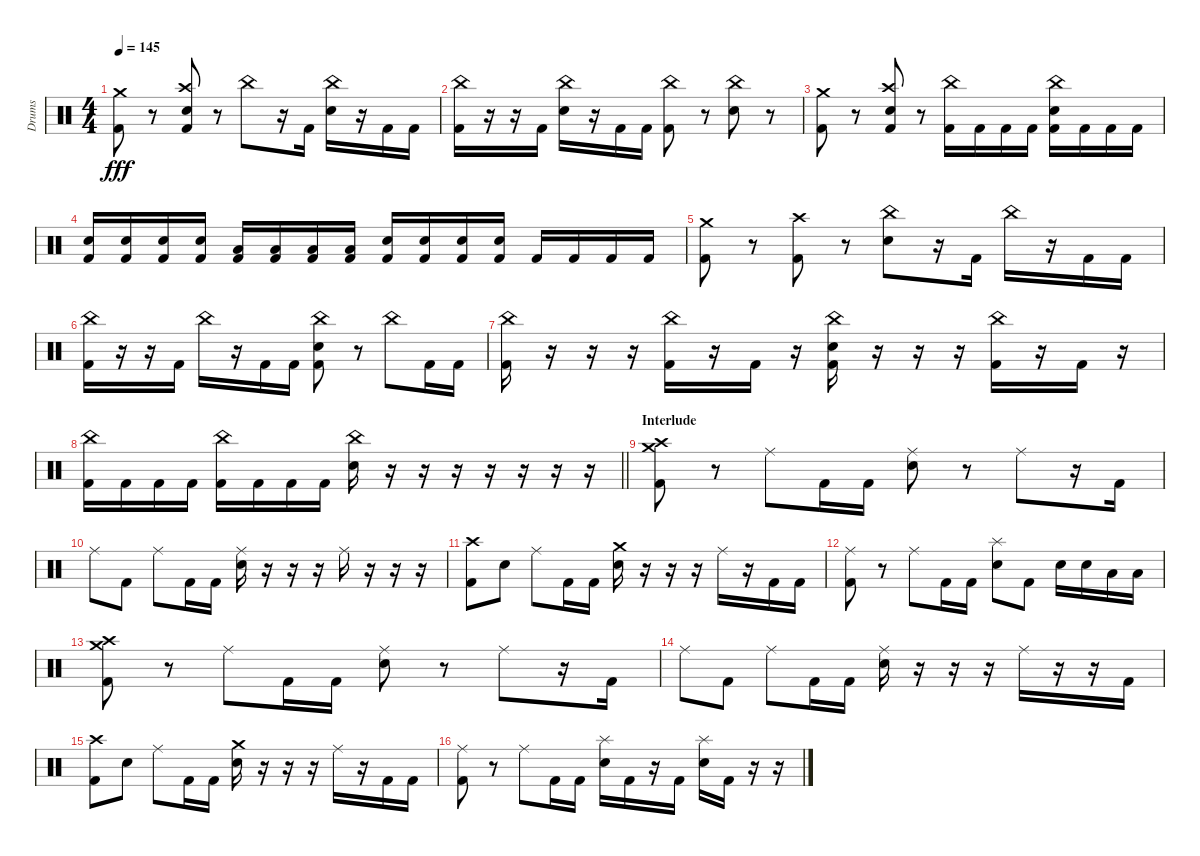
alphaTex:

\track ("Drums" "Drums") {instrument percussion}
\staff {score}
\articulation defaults
\ts (4 4)
\tempo 145
\clef neutral
\ks c
("Crash medium (hit)" "Kick (hit) 2").8{dy fff} r.8 ("Crash high (hit)" "Electric Snare (hit)" "Kick (hit) 2").8 r.8 "China (hit)".8 r.16 "Kick (hit) 2".16 ("China (hit)" "Electric Snare (hit)").16 r.16 "Kick (hit) 2".16 "Kick (hit) 2".16 |
("China (hit)" "Kick (hit) 2").16 r.16 r.16 "Kick (hit) 2".16 ("China (hit)" "Electric Snare (hit)").16 r.16 "Kick (hit) 2".16 "Kick (hit) 2".16 ("China (hit)" "Kick (hit) 2").8 r.8 ("China (hit)" "Electric Snare (hit)").8 r.8 |
("Crash medium (hit)" "Kick (hit) 2").8 r.8 ("Crash high (hit)" "Electric Snare (hit)" "Kick (hit) 2").8 r.8 ("China (hit)" "Kick (hit) 2").16 "Kick (hit) 2".16 "Kick (hit) 2".16 "Kick (hit) 2".16 ("China (hit)" "Electric Snare (hit)" "Kick (hit) 2").16 "Kick (hit) 2".16 "Kick (hit) 2".16 "Kick (hit) 2".16 |
("Electric Snare (hit)" "Kick (hit) 2").16 ("Electric Snare (hit)" "Kick (hit) 2").16 ("Electric Snare (hit)" "Kick (hit) 2").16 ("Electric Snare (hit)" "Kick (hit) 2").16 ("Low Tom (hit)" "Kick (hit) 2").16 ("Low Tom (hit)" "Kick (hit) 2").16 ("Low Floor Tom (hit)" "Kick (hit) 2").16 ("Low Floor Tom (hit)" "Kick (hit) 2").16 ("Electric Snare (hit)" "Kick (hit) 2").16 ("Electric Snare (hit)" "Kick (hit) 2").16 ("Electric Snare (hit)" "Kick (hit) 2").16 ("Electric Snare (hit)" "Kick (hit) 2").16 "Kick (hit) 2".16 "Kick (hit) 2".16 "Kick (hit) 2".16 "Kick (hit) 2".16 |
("Crash medium (hit)" "Kick (hit) 2").8 r.8 ("Crash high (hit)" "Kick (hit) 2").8 r.8 ("China (hit)" "Electric Snare (hit)").8 r.16 "Kick (hit) 2".16 "China (hit)".16 r.16 "Kick (hit) 2".16 "Kick (hit) 2".16 |
("China (hit)" "Kick (hit) 2").16 r.16 r.16 "Kick (hit) 2".16 "China (hit)".16 r.16 "Kick (hit) 2".16 "Kick (hit) 2".16 ("China (hit)" "Electric Snare (hit)" "Kick (hit) 2").8 r.8 "China (hit)".8 "Kick (hit) 2".16 "Kick (hit) 2".16 |
("China (hit)" "Kick (hit) 2").16 r.16 r.16 r.16 ("China (hit)" "Kick (hit) 2").16 r.16 "Kick (hit) 2".16 r.16 ("China (hit)" "Electric Snare (hit)" "Kick (hit) 2").16 r.16 r.16 r.16 ("China (hit)" "Kick (hit) 2").16 r.16 "Kick (hit) 2".16 r.16 |
\barLineRight lightlight
("China (hit)" "Kick (hit) 2").16 "Kick (hit) 2".16 "Kick (hit) 2".16 "Kick (hit) 2".16 ("China (hit)" "Kick (hit) 2").16 "Kick (hit) 2".16 "Kick (hit) 2".16 "Kick (hit) 2".16 ("China (hit)" "Electric Snare (hit)").16 r.16 r.16 r.16 r.16 r.16 r.16 r.16 |
\section ("" "Interlude")
("Crash medium (hit)" "Crash high (hit)" "Kick (hit) 2").8 r.8 "Ride (middle)".8 "Kick (hit) 2".16 "Kick (hit) 2".16 ("Ride (middle)" "Electric Snare (hit)").8 r.8 "Ride (middle)".8 r.16 "Kick (hit) 2".16 |
"Ride (middle)".8 "Kick (hit) 2".8 "Ride (middle)".8 "Kick (hit) 2".16 "Kick (hit) 2".16 ("Ride (middle)" "Electric Snare (hit)").16 r.16 r.16 r.16 "Ride (middle)".16 r.16 r.16 r.16 |
("Crash high (hit)" "Kick (hit) 2").8 "Electric Snare (hit)".8 "Ride (middle)".8 "Kick (hit) 2".16 "Kick (hit) 2".16 ("Crash medium (hit)" "Electric Snare (hit)").16 r.16 r.16 r.16 "Ride (middle)".16 r.16 "Kick (hit) 2".16 "Kick (hit) 2".16 |
("Ride (middle)" "Kick (hit) 2").8 r.8 "Ride (middle)".8 "Kick (hit) 2".16 "Kick (hit) 2".16 ("Splash (hit)" "Electric Snare (hit)").8 "Kick (hit) 2".8 "Electric Snare (hit)".16 "Electric Snare (hit)".16 "Low Tom (hit)".16 "Low Floor Tom (hit)".16 |
("Crash medium (hit)" "Crash high (hit)" "Kick (hit) 2").8 r.8 "Ride (middle)".8 "Kick (hit) 2".16 "Kick (hit) 2".16 ("Ride (middle)" "Electric Snare (hit)").8 r.8 "Ride (middle)".8 r.16 "Kick (hit) 2".16 |
"Ride (middle)".8 "Kick (hit) 2".8 "Ride (middle)".8 "Kick (hit) 2".16 "Kick (hit) 2".16 ("Ride (middle)" "Electric Snare (hit)").16 r.16 r.16 r.16 "Ride (middle)".16 r.16 r.16 "Kick (hit) 2".16 |
("Crash high (hit)" "Kick (hit) 2").8 "Electric Snare (hit)".8 "Ride (middle)".8 "Kick (hit) 2".16 "Kick (hit) 2".16 ("Crash medium (hit)" "Electric Snare (hit)").16 r.16 r.16 r.16 "Ride (middle)".16 r.16 "Kick (hit) 2".16 "Kick (hit) 2".16 |
("Ride (middle)" "Kick (hit) 2").8 r.8 "Ride (middle)".8 "Kick (hit) 2".16 "Kick (hit) 2".16 ("Splash (hit)" "Electric Snare (hit)").16 "Kick (hit) 2".16 r.16 "Kick (hit) 2".16 ("Splash (hit)" "Electric Snare (hit)").16 "Kick (hit) 2".16 r.16 r.16
